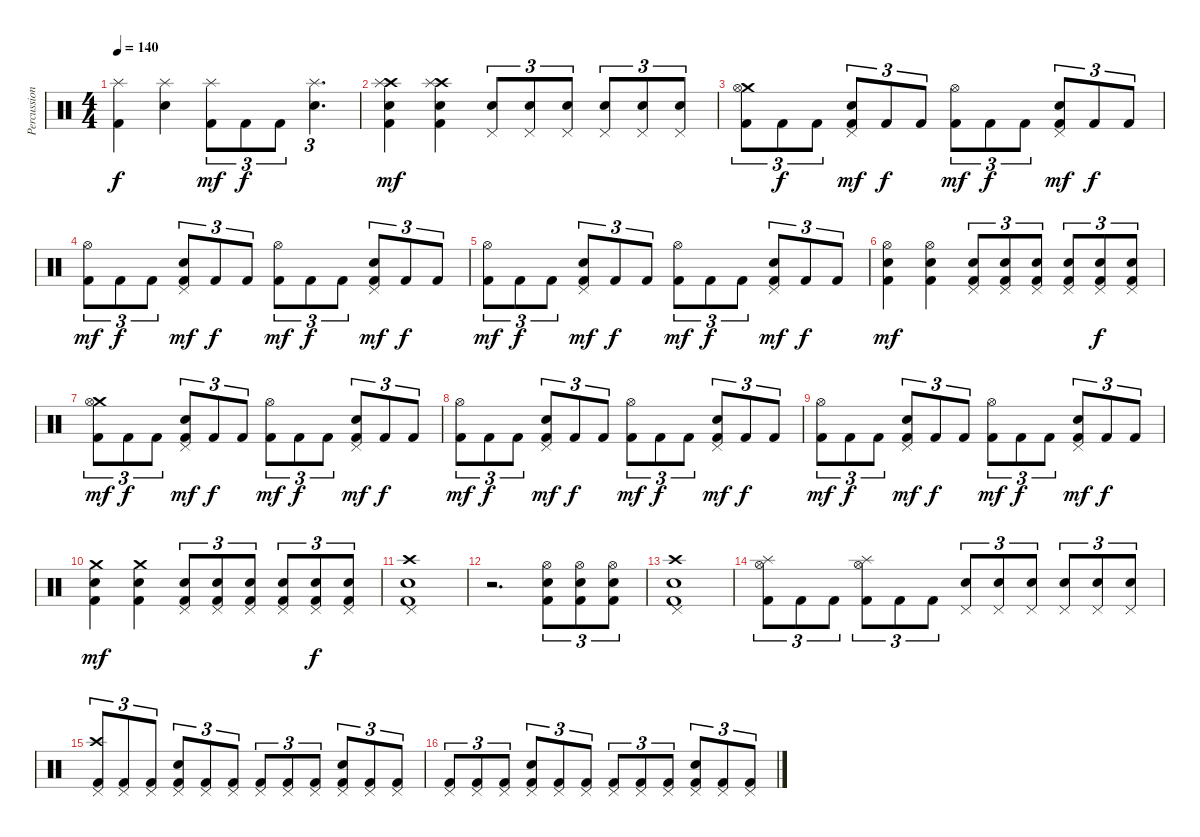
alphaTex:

\track ("Percussion" "Percussion") {instrument percussion}
\staff {score}
\articulation defaults
\ts (4 4)
\tempo 140
\clef neutral
\ks c
("Splash (hit)" "Kick (hit) 2").4{dy f} ("Splash (hit)" "Snare (hit) 2").4 ("Splash (hit)" "Kick (hit) 2").8{tu (3 2) dy mf} "Kick (hit) 2".8{tu (3 2) dy f} "Kick (hit) 2".8{tu (3 2)} ("Splash (hit)" "Snare (hit) 2").4{d tu (3 2)} |
("Crash high (hit)" "Splash (hit)" "Kick (hit) 2" "Snare (hit) 2").4{dy mf} ("Crash high (hit)" "Splash (hit)" "Kick (hit) 2" "Snare (hit) 2").4 ("Snare (hit) 2" "Pedal Hi-Hat (hit)").8{tu (3 2)} ("Snare (hit) 2" "Pedal Hi-Hat (hit)").8{tu (3 2)} ("Snare (hit) 2" "Pedal Hi-Hat (hit)").8{tu (3 2)} ("Snare (hit) 2" "Pedal Hi-Hat (hit)").8{tu (3 2)} ("Snare (hit) 2" "Pedal Hi-Hat (hit)").8{tu (3 2)} ("Snare (hit) 2" "Pedal Hi-Hat (hit)").8{tu (3 2)} |
("Crash medium (hit)" "Hi-Hat (open)" "Kick (hit) 2").8{tu (3 2)} "Kick (hit) 2".8{tu (3 2) dy f} "Kick (hit) 2".8{tu (3 2)} ("Pedal Hi-Hat (hit)" "Electric Snare (hit)" "Kick (hit) 2").8{tu (3 2) dy mf} "Kick (hit) 2".8{tu (3 2) dy f} "Kick (hit) 2".8{tu (3 2)} ("Hi-Hat (open)" "Kick (hit) 2").8{tu (3 2) dy mf} "Kick (hit) 2".8{tu (3 2) dy f} "Kick (hit) 2".8{tu (3 2)} ("Pedal Hi-Hat (hit)" "Electric Snare (hit)" "Kick (hit) 2").8{tu (3 2) dy mf} "Kick (hit) 2".8{tu (3 2) dy f} "Kick (hit) 2".8{tu (3 2)} |
("Hi-Hat (open)" "Kick (hit) 2").8{tu (3 2) dy mf} "Kick (hit) 2".8{tu (3 2) dy f} "Kick (hit) 2".8{tu (3 2)} ("Pedal Hi-Hat (hit)" "Electric Snare (hit)" "Kick (hit) 2").8{tu (3 2) dy mf} "Kick (hit) 2".8{tu (3 2) dy f} "Kick (hit) 2".8{tu (3 2)} ("Hi-Hat (open)" "Kick (hit) 2").8{tu (3 2) dy mf} "Kick (hit) 2".8{tu (3 2) dy f} "Kick (hit) 2".8{tu (3 2)} ("Pedal Hi-Hat (hit)" "Electric Snare (hit)" "Kick (hit) 2").8{tu (3 2) dy mf} "Kick (hit) 2".8{tu (3 2) dy f} "Kick (hit) 2".8{tu (3 2)} |
("Hi-Hat (open)" "Kick (hit) 2").8{tu (3 2) dy mf} "Kick (hit) 2".8{tu (3 2) dy f} "Kick (hit) 2".8{tu (3 2)} ("Pedal Hi-Hat (hit)" "Electric Snare (hit)" "Kick (hit) 2").8{tu (3 2) dy mf} "Kick (hit) 2".8{tu (3 2) dy f} "Kick (hit) 2".8{tu (3 2)} ("Hi-Hat (open)" "Kick (hit) 2").8{tu (3 2) dy mf} "Kick (hit) 2".8{tu (3 2) dy f} "Kick (hit) 2".8{tu (3 2)} ("Pedal Hi-Hat (hit)" "Electric Snare (hit)" "Kick (hit) 2").8{tu (3 2) dy mf} "Kick (hit) 2".8{tu (3 2) dy f} "Kick (hit) 2".8{tu (3 2)} |
("Hi-Hat (open)" "Snare (hit) 2" "Kick (hit) 2").4{dy mf} ("Hi-Hat (open)" "Snare (hit) 2" "Kick (hit) 2").4 ("Pedal Hi-Hat (hit)" "Electric Snare (hit)" "Kick (hit) 2").8{tu (3 2)} ("Pedal Hi-Hat (hit)" "Electric Snare (hit)" "Kick (hit) 2").8{tu (3 2)} ("Pedal Hi-Hat (hit)" "Electric Snare (hit)" "Kick (hit) 2").8{tu (3 2)} ("Pedal Hi-Hat (hit)" "Electric Snare (hit)" "Kick (hit) 2").8{tu (3 2)} ("Pedal Hi-Hat (hit)" "Electric Snare (hit)" "Kick (hit) 2").8{tu (3 2) dy f} ("Pedal Hi-Hat (hit)" "Electric Snare (hit)" "Kick (hit) 2").8{tu (3 2)} |
("Crash medium (hit)" "Hi-Hat (open)" "Kick (hit) 2").8{tu (3 2) dy mf} "Kick (hit) 2".8{tu (3 2) dy f} "Kick (hit) 2".8{tu (3 2)} ("Pedal Hi-Hat (hit)" "Electric Snare (hit)" "Kick (hit) 2").8{tu (3 2) dy mf} "Kick (hit) 2".8{tu (3 2) dy f} "Kick (hit) 2".8{tu (3 2)} ("Hi-Hat (open)" "Kick (hit) 2").8{tu (3 2) dy mf} "Kick (hit) 2".8{tu (3 2) dy f} "Kick (hit) 2".8{tu (3 2)} ("Pedal Hi-Hat (hit)" "Electric Snare (hit)" "Kick (hit) 2").8{tu (3 2) dy mf} "Kick (hit) 2".8{tu (3 2) dy f} "Kick (hit) 2".8{tu (3 2)} |
("Hi-Hat (open)" "Kick (hit) 2").8{tu (3 2) dy mf} "Kick (hit) 2".8{tu (3 2) dy f} "Kick (hit) 2".8{tu (3 2)} ("Pedal Hi-Hat (hit)" "Electric Snare (hit)" "Kick (hit) 2").8{tu (3 2) dy mf} "Kick (hit) 2".8{tu (3 2) dy f} "Kick (hit) 2".8{tu (3 2)} ("Hi-Hat (open)" "Kick (hit) 2").8{tu (3 2) dy mf} "Kick (hit) 2".8{tu (3 2) dy f} "Kick (hit) 2".8{tu (3 2)} ("Pedal Hi-Hat (hit)" "Electric Snare (hit)" "Kick (hit) 2").8{tu (3 2) dy mf} "Kick (hit) 2".8{tu (3 2) dy f} "Kick (hit) 2".8{tu (3 2)} |
("Hi-Hat (open)" "Kick (hit) 2").8{tu (3 2) dy mf} "Kick (hit) 2".8{tu (3 2) dy f} "Kick (hit) 2".8{tu (3 2)} ("Pedal Hi-Hat (hit)" "Electric Snare (hit)" "Kick (hit) 2").8{tu (3 2) dy mf} "Kick (hit) 2".8{tu (3 2) dy f} "Kick (hit) 2".8{tu (3 2)} ("Hi-Hat (open)" "Kick (hit) 2").8{tu (3 2) dy mf} "Kick (hit) 2".8{tu (3 2) dy f} "Kick (hit) 2".8{tu (3 2)} ("Pedal Hi-Hat (hit)" "Electric Snare (hit)" "Kick (hit) 2").8{tu (3 2) dy mf} "Kick (hit) 2".8{tu (3 2) dy f} "Kick (hit) 2".8{tu (3 2)} |
("Crash medium (hit)" "Snare (hit) 2" "Kick (hit) 2").4{dy mf} ("Crash medium (hit)" "Snare (hit) 2" "Kick (hit) 2").4 ("Pedal Hi-Hat (hit)" "Electric Snare (hit)" "Kick (hit) 2").8{tu (3 2)} ("Pedal Hi-Hat (hit)" "Electric Snare (hit)" "Kick (hit) 2").8{tu (3 2)} ("Pedal Hi-Hat (hit)" "Electric Snare (hit)" "Kick (hit) 2").8{tu (3 2)} ("Pedal Hi-Hat (hit)" "Electric Snare (hit)" "Kick (hit) 2").8{tu (3 2)} ("Pedal Hi-Hat (hit)" "Electric Snare (hit)" "Kick (hit) 2").8{tu (3 2) dy f} ("Pedal Hi-Hat (hit)" "Electric Snare (hit)" "Kick (hit) 2").8{tu (3 2)} |
("Snare (hit) 2" "Crash high (hit)" "Pedal Hi-Hat (hit)" "Kick (hit) 2").1 |
r.2{d} ("Snare (hit) 2" "Hi-Hat (open)" "Kick (hit) 2").8{tu (3 2)} ("Snare (hit) 2" "Hi-Hat (open)" "Kick (hit) 2").8{tu (3 2)} ("Snare (hit) 2" "Hi-Hat (open)" "Kick (hit) 2").8{tu (3 2)} |
("Crash high (hit)" "Snare (hit) 2" "Pedal Hi-Hat (hit)" "Kick (hit) 2").1 |
("Hi-Hat (open)" "Splash (hit)" "Kick (hit) 2").8{tu (3 2)} "Kick (hit) 2".8{tu (3 2)} "Kick (hit) 2".8{tu (3 2)} ("Hi-Hat (open)" "Splash (hit)" "Kick (hit) 2").8{tu (3 2)} "Kick (hit) 2".8{tu (3 2)} "Kick (hit) 2".8{tu (3 2)} ("Pedal Hi-Hat (hit)" "Snare (hit) 2").8{tu (3 2)} ("Pedal Hi-Hat (hit)" "Snare (hit) 2").8{tu (3 2)} ("Pedal Hi-Hat (hit)" "Snare (hit) 2").8{tu (3 2)} ("Pedal Hi-Hat (hit)" "Snare (hit) 2").8{tu (3 2)} ("Pedal Hi-Hat (hit)" "Snare (hit) 2").8{tu (3 2)} ("Pedal Hi-Hat (hit)" "Snare (hit) 2").8{tu (3 2)} |
("Crash high (hit)" "Pedal Hi-Hat (hit)" "Kick (hit) 2").8{tu (3 2)} ("Pedal Hi-Hat (hit)" "Kick (hit) 2").8{tu (3 2)} ("Pedal Hi-Hat (hit)" "Kick (hit) 2").8{tu (3 2)} ("Snare (hit) 2" "Pedal Hi-Hat (hit)" "Kick (hit) 2").8{tu (3 2)} ("Pedal Hi-Hat (hit)" "Kick (hit) 2").8{tu (3 2)} ("Pedal Hi-Hat (hit)" "Kick (hit) 2").8{tu (3 2)} ("Pedal Hi-Hat (hit)" "Kick (hit) 2").8{tu (3 2)} ("Pedal Hi-Hat (hit)" "Kick (hit) 2").8{tu (3 2)} ("Pedal Hi-Hat (hit)" "Kick (hit) 2").8{tu (3 2)} ("Snare (hit) 2" "Pedal Hi-Hat (hit)" "Kick (hit) 2").8{tu (3 2)} ("Pedal Hi-Hat (hit)" "Kick (hit) 2").8{tu (3 2)} ("Pedal Hi-Hat (hit)" "Kick (hit) 2").8{tu (3 2)} |
("Pedal Hi-Hat (hit)" "Kick (hit) 2").8{tu (3 2)} ("Pedal Hi-Hat (hit)" "Kick (hit) 2").8{tu (3 2)} ("Pedal Hi-Hat (hit)" "Kick (hit) 2").8{tu (3 2)} ("Snare (hit) 2" "Pedal Hi-Hat (hit)" "Kick (hit) 2").8{tu (3 2)} ("Pedal Hi-Hat (hit)" "Kick (hit) 2").8{tu (3 2)} ("Pedal Hi-Hat (hit)" "Kick (hit) 2").8{tu (3 2)} ("Pedal Hi-Hat (hit)" "Kick (hit) 2").8{tu (3 2)} ("Pedal Hi-Hat (hit)" "Kick (hit) 2").8{tu (3 2)} ("Pedal Hi-Hat (hit)" "Kick (hit) 2").8{tu (3 2)} ("Snare (hit) 2" "Pedal Hi-Hat (hit)" "Kick (hit) 2").8{tu (3 2)} ("Pedal Hi-Hat (hit)" "Kick (hit) 2").8{tu (3 2)} ("Pedal Hi-Hat (hit)" "Kick (hit) 2").8{tu (3 2)}
